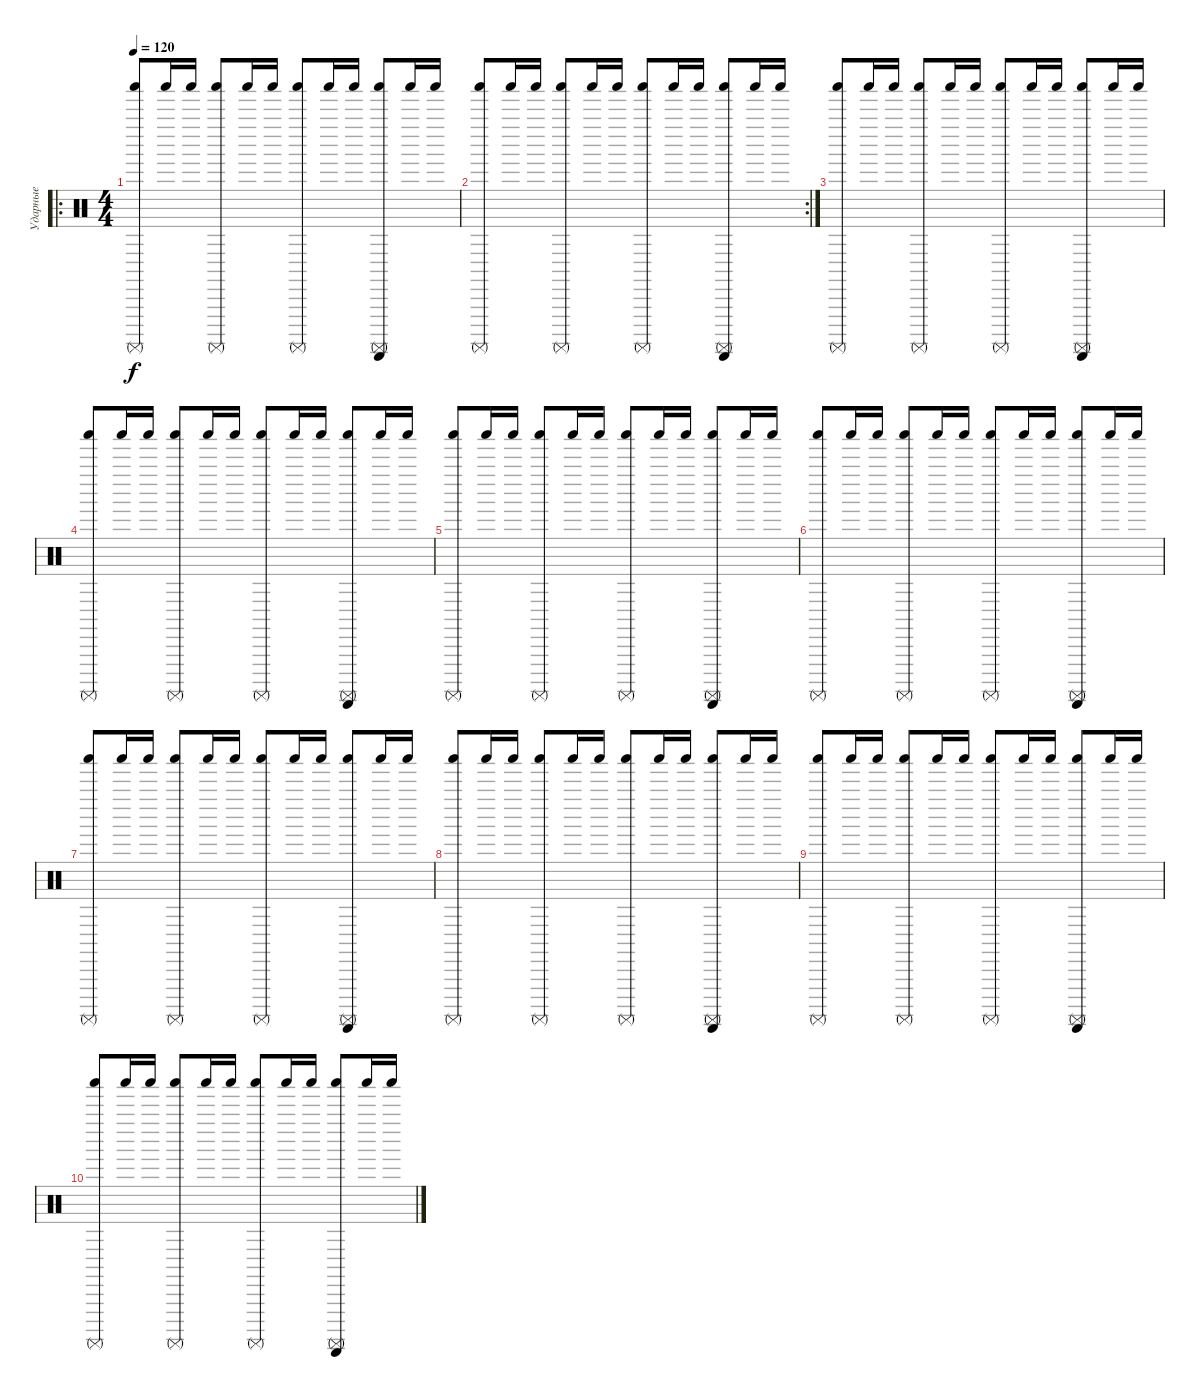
\track ("Ударные" "Ударные") {instrument percussion}
\staff {score}
\articulation defaults
\ro
\ts (4 4)
\tempo 120
\clef neutral
\ks c
("Shaker (hit)" "Surdo (mute)").8{dy f} "Shaker (hit)".16 "Shaker (hit)".16 ("Shaker (hit)" "Surdo (mute)").8 "Shaker (hit)".16 "Shaker (hit)".16 ("Shaker (hit)" "Surdo (mute)").8 "Shaker (hit)".16 "Shaker (hit)".16 ("Shaker (hit)" "Guiro (scrap-return)" "Surdo (mute)").8 "Shaker (hit)".16 "Shaker (hit)".16 |
\rc 2
("Shaker (hit)" "Surdo (mute)").8 "Shaker (hit)".16 "Shaker (hit)".16 ("Shaker (hit)" "Surdo (mute)").8 "Shaker (hit)".16 "Shaker (hit)".16 ("Shaker (hit)" "Surdo (mute)").8 "Shaker (hit)".16 "Shaker (hit)".16 ("Shaker (hit)" "Guiro (scrap-return)" "Surdo (mute)").8 "Shaker (hit)".16 "Shaker (hit)".16 |
("Shaker (hit)" "Surdo (mute)").8 "Shaker (hit)".16 "Shaker (hit)".16 ("Shaker (hit)" "Surdo (mute)").8 "Shaker (hit)".16 "Shaker (hit)".16 ("Shaker (hit)" "Surdo (mute)").8 "Shaker (hit)".16 "Shaker (hit)".16 ("Shaker (hit)" "Guiro (scrap-return)" "Surdo (mute)").8 "Shaker (hit)".16 "Shaker (hit)".16 |
("Shaker (hit)" "Surdo (mute)").8 "Shaker (hit)".16 "Shaker (hit)".16 ("Shaker (hit)" "Surdo (mute)").8 "Shaker (hit)".16 "Shaker (hit)".16 ("Shaker (hit)" "Surdo (mute)").8 "Shaker (hit)".16 "Shaker (hit)".16 ("Shaker (hit)" "Guiro (scrap-return)" "Surdo (mute)").8 "Shaker (hit)".16 "Shaker (hit)".16 |
("Shaker (hit)" "Surdo (mute)").8 "Shaker (hit)".16 "Shaker (hit)".16 ("Shaker (hit)" "Surdo (mute)").8 "Shaker (hit)".16 "Shaker (hit)".16 ("Shaker (hit)" "Surdo (mute)").8 "Shaker (hit)".16 "Shaker (hit)".16 ("Shaker (hit)" "Guiro (scrap-return)" "Surdo (mute)").8 "Shaker (hit)".16 "Shaker (hit)".16 |
("Shaker (hit)" "Surdo (mute)").8 "Shaker (hit)".16 "Shaker (hit)".16 ("Shaker (hit)" "Surdo (mute)").8 "Shaker (hit)".16 "Shaker (hit)".16 ("Shaker (hit)" "Surdo (mute)").8 "Shaker (hit)".16 "Shaker (hit)".16 ("Shaker (hit)" "Guiro (scrap-return)" "Surdo (mute)").8 "Shaker (hit)".16 "Shaker (hit)".16 |
("Shaker (hit)" "Surdo (mute)").8 "Shaker (hit)".16 "Shaker (hit)".16 ("Shaker (hit)" "Surdo (mute)").8 "Shaker (hit)".16 "Shaker (hit)".16 ("Shaker (hit)" "Surdo (mute)").8 "Shaker (hit)".16 "Shaker (hit)".16 ("Shaker (hit)" "Guiro (scrap-return)" "Surdo (mute)").8 "Shaker (hit)".16 "Shaker (hit)".16 |
("Shaker (hit)" "Surdo (mute)").8 "Shaker (hit)".16 "Shaker (hit)".16 ("Shaker (hit)" "Surdo (mute)").8 "Shaker (hit)".16 "Shaker (hit)".16 ("Shaker (hit)" "Surdo (mute)").8 "Shaker (hit)".16 "Shaker (hit)".16 ("Shaker (hit)" "Guiro (scrap-return)" "Surdo (mute)").8 "Shaker (hit)".16 "Shaker (hit)".16 |
("Shaker (hit)" "Surdo (mute)").8 "Shaker (hit)".16 "Shaker (hit)".16 ("Shaker (hit)" "Surdo (mute)").8 "Shaker (hit)".16 "Shaker (hit)".16 ("Shaker (hit)" "Surdo (mute)").8 "Shaker (hit)".16 "Shaker (hit)".16 ("Shaker (hit)" "Guiro (scrap-return)" "Surdo (mute)").8 "Shaker (hit)".16 "Shaker (hit)".16 |
("Shaker (hit)" "Surdo (mute)").8 "Shaker (hit)".16 "Shaker (hit)".16 ("Shaker (hit)" "Surdo (mute)").8 "Shaker (hit)".16 "Shaker (hit)".16 ("Shaker (hit)" "Surdo (mute)").8 "Shaker (hit)".16 "Shaker (hit)".16 ("Shaker (hit)" "Guiro (scrap-return)" "Surdo (mute)").8 "Shaker (hit)".16 "Shaker (hit)".16
